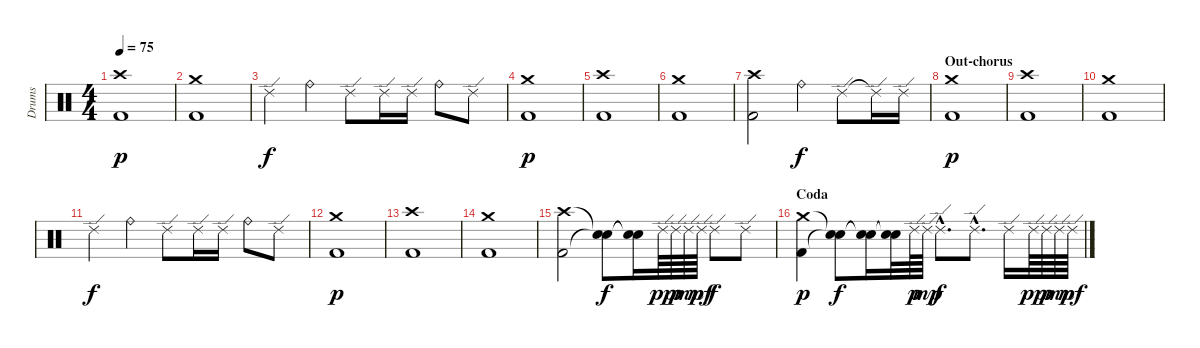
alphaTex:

\track ("Drums" "Drums") {instrument percussion}
\staff {score}
\articulation defaults
\ts (4 4)
\tempo 75
\clef neutral
\ks c
("Kick (hit) 2" "Crash high (hit)").1{dy p} |
("Kick (hit) 2" "Crash medium (hit)").1 |
"Ride (edge) 2".4{dy f} "Ride (bell)".4 "Ride (edge) 2".8 "Ride (edge) 2".16 "Ride (edge) 2".16 "Ride (bell)".8 "Ride (edge) 2".8 |
("Kick (hit) 2" "Crash medium (hit)").1{dy p} |
("Kick (hit) 2" "Crash high (hit)").1 |
("Kick (hit) 2" "Crash medium (hit)").1 |
("Kick (hit) 2" "Crash high (hit)").2 "Ride (bell)".4{dy f} "Ride (edge) 2".8 "Ride (edge) 2"{t}.16 "Ride (edge) 2".16 |
\section ("" "Out-chorus")
("Kick (hit) 2" "Crash medium (hit)").1{dy p} |
("Kick (hit) 2" "Crash high (hit)").1 |
("Kick (hit) 2" "Crash medium (hit)").1 |
"Ride (edge) 2".4{dy f} "Ride (bell)".4 "Ride (edge) 2".8 "Ride (edge) 2".16 "Ride (edge) 2".16 "Ride (bell)".8 "Ride (edge) 2".8 |
("Kick (hit) 2" "Crash medium (hit)").1{dy p} |
("Kick (hit) 2" "Crash high (hit)").1 |
("Kick (hit) 2" "Crash medium (hit)").1 |
("Kick (hit) 2" "Crash high (hit)").2 ("Snare (hit)"{t} "Snare (hit)"{t}).8{dy f} ("Snare (hit)"{t} "Snare (hit)"{t}).16 "Ride (edge) 2".64{dy pp} "Ride (edge) 2".64{dy p} "Ride (edge) 2".64{dy mp} "Ride (edge) 2".64{dy mf} "Ride (edge) 2".8{dy f} "Ride (edge) 2".8 |
\section ("" "Coda")
("Kick (hit) 2" "Crash medium (hit)").4{dy p} ("Snare (hit)"{t} "Snare (hit)"{t}).8{dy f} ("Snare (hit)"{t} "Snare (hit)"{t}).16 ("Snare (hit)"{t} "Snare (hit)"{t}).32 "Ride (edge) 2".64{dy p} "Ride (edge) 2".64{dy mp} "Ride (edge) 2"{hac}.8{d dy f} "Ride (edge) 2"{hac}.8{d} "Ride (edge) 2".16 "Ride (edge) 2".64{dy pp} "Ride (edge) 2".64{dy p} "Ride (edge) 2".64{dy mp} "Ride (edge) 2".64{dy mf}
